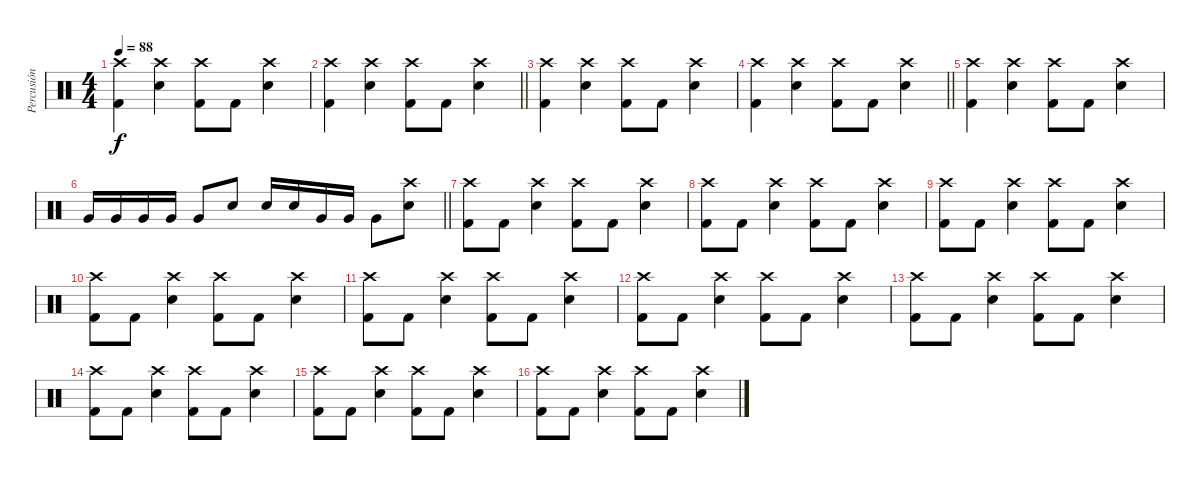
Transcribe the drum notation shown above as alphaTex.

\track ("Percusión" "Percusión") {instrument percussion}
\staff {score}
\articulation defaults
\ts (4 4)
\tempo 88
\clef neutral
\ks c
("Crash high (hit)" "Kick (hit) 2").4{dy f} ("Crash high (hit)" "Electric Snare (hit)").4 ("Crash high (hit)" "Kick (hit) 2").8 "Kick (hit) 2".8 ("Crash high (hit)" "Electric Snare (hit)").4 |
\barLineRight lightlight
("Crash high (hit)" "Kick (hit) 2").4 ("Crash high (hit)" "Electric Snare (hit)").4 ("Crash high (hit)" "Kick (hit) 2").8 "Kick (hit) 2".8 ("Crash high (hit)" "Electric Snare (hit)").4 |
("Crash high (hit)" "Kick (hit) 2").4 ("Crash high (hit)" "Electric Snare (hit)").4 ("Crash high (hit)" "Kick (hit) 2").8 "Kick (hit) 2".8 ("Crash high (hit)" "Electric Snare (hit)").4 |
\barLineRight lightlight
("Crash high (hit)" "Kick (hit) 2").4 ("Crash high (hit)" "Electric Snare (hit)").4 ("Crash high (hit)" "Kick (hit) 2").8 "Kick (hit) 2".8 ("Crash high (hit)" "Electric Snare (hit)").4 |
("Crash high (hit)" "Kick (hit) 2").4 ("Crash high (hit)" "Electric Snare (hit)").4 ("Crash high (hit)" "Kick (hit) 2").8 "Kick (hit) 2".8 ("Crash high (hit)" "Electric Snare (hit)").4 |
\barLineRight lightlight "Very Low Tom (hit)".16 "Very Low Tom (hit)".16 "Very Low Tom (hit)".16 "Very Low Tom (hit)".16 "Very Low Tom (hit)".8 "Electric Snare (hit)".8 "Electric Snare (hit)".16 "Electric Snare (hit)".16 "Very Low Tom (hit)".16 "Very Low Tom (hit)".16 "Very Low Tom (hit)".8
("Crash high (hit)" "Electric Snare (hit)").8 |
("Crash high (hit)" "Kick (hit) 2").8 "Kick (hit) 2".8 ("Crash high (hit)" "Electric Snare (hit)").4 ("Crash high (hit)" "Kick (hit) 2").8 "Kick (hit) 2".8 ("Crash high (hit)" "Electric Snare (hit)").4 |
("Crash high (hit)" "Kick (hit) 2").8 "Kick (hit) 2".8 ("Crash high (hit)" "Electric Snare (hit)").4 ("Crash high (hit)" "Kick (hit) 2").8 "Kick (hit) 2".8 ("Crash high (hit)" "Electric Snare (hit)").4 |
("Crash high (hit)" "Kick (hit) 2").8 "Kick (hit) 2".8 ("Crash high (hit)" "Electric Snare (hit)").4 ("Crash high (hit)" "Kick (hit) 2").8 "Kick (hit) 2".8 ("Crash high (hit)" "Electric Snare (hit)").4 |
("Crash high (hit)" "Kick (hit) 2").8 "Kick (hit) 2".8 ("Crash high (hit)" "Electric Snare (hit)").4 ("Crash high (hit)" "Kick (hit) 2").8 "Kick (hit) 2".8 ("Crash high (hit)" "Electric Snare (hit)").4 |
("Crash high (hit)" "Kick (hit) 2").8 "Kick (hit) 2".8 ("Crash high (hit)" "Electric Snare (hit)").4 ("Crash high (hit)" "Kick (hit) 2").8 "Kick (hit) 2".8 ("Crash high (hit)" "Electric Snare (hit)").4 |
("Crash high (hit)" "Kick (hit) 2").8 "Kick (hit) 2".8 ("Crash high (hit)" "Electric Snare (hit)").4 ("Crash high (hit)" "Kick (hit) 2").8 "Kick (hit) 2".8 ("Crash high (hit)" "Electric Snare (hit)").4 |
("Crash high (hit)" "Kick (hit) 2").8 "Kick (hit) 2".8 ("Crash high (hit)" "Electric Snare (hit)").4 ("Crash high (hit)" "Kick (hit) 2").8 "Kick (hit) 2".8 ("Crash high (hit)" "Electric Snare (hit)").4 |
("Crash high (hit)" "Kick (hit) 2").8 "Kick (hit) 2".8 ("Crash high (hit)" "Electric Snare (hit)").4 ("Crash high (hit)" "Kick (hit) 2").8 "Kick (hit) 2".8 ("Crash high (hit)" "Electric Snare (hit)").4 |
("Crash high (hit)" "Kick (hit) 2").8 "Kick (hit) 2".8 ("Crash high (hit)" "Electric Snare (hit)").4 ("Crash high (hit)" "Kick (hit) 2").8 "Kick (hit) 2".8 ("Crash high (hit)" "Electric Snare (hit)").4 |
("Crash high (hit)" "Kick (hit) 2").8 "Kick (hit) 2".8 ("Crash high (hit)" "Electric Snare (hit)").4 ("Crash high (hit)" "Kick (hit) 2").8 "Kick (hit) 2".8 ("Crash high (hit)" "Electric Snare (hit)").4
